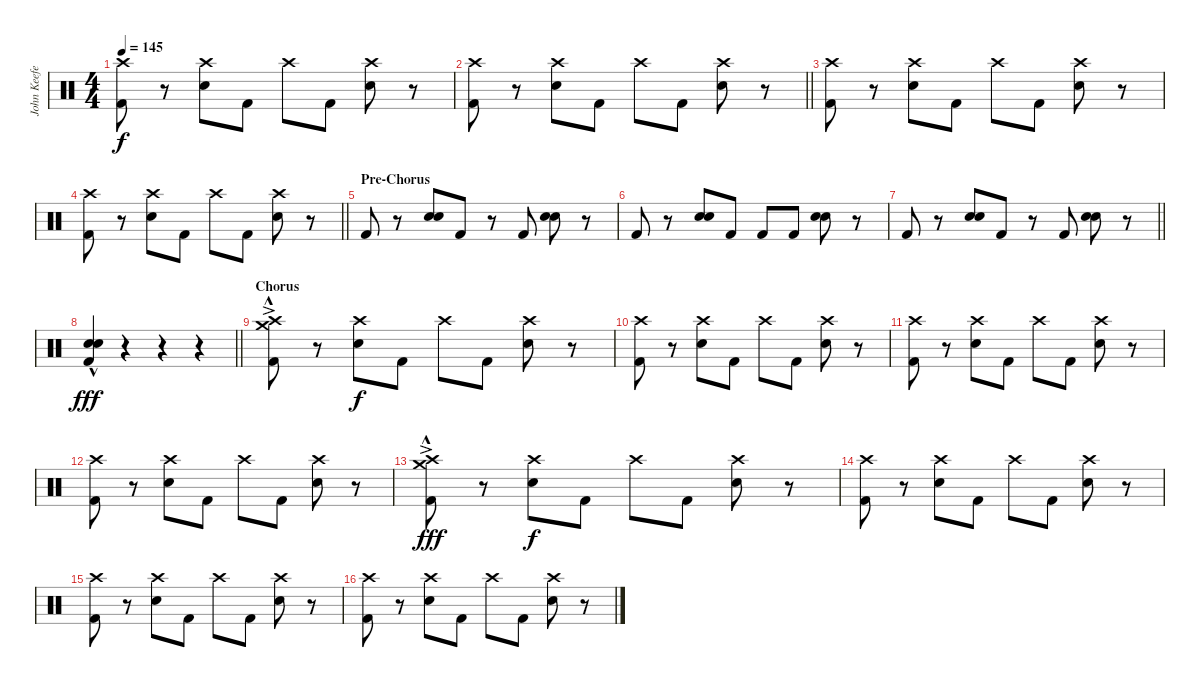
\track ("John Keefe (Percussion)" "John Keefe") {instrument percussion}
\staff {score}
\articulation defaults
\ts (4 4)
\tempo 145
\clef neutral
\ks c
("Crash high (hit)" "Kick (hit) 2").8{dy f} r.8 ("Crash high (hit)" "Electric Snare (hit)").8 "Kick (hit) 2".8 "Crash high (hit)".8 "Kick (hit) 2".8 ("Crash high (hit)" "Electric Snare (hit)").8 r.8 |
\barLineRight lightlight
("Crash high (hit)" "Kick (hit) 2").8 r.8 ("Crash high (hit)" "Electric Snare (hit)").8 "Kick (hit) 2".8 "Crash high (hit)".8 "Kick (hit) 2".8 ("Crash high (hit)" "Electric Snare (hit)").8 r.8 |
("Crash high (hit)" "Kick (hit) 2").8 r.8 ("Crash high (hit)" "Electric Snare (hit)").8 "Kick (hit) 2".8 "Crash high (hit)".8 "Kick (hit) 2".8 ("Crash high (hit)" "Electric Snare (hit)").8 r.8 |
\barLineRight lightlight
("Crash high (hit)" "Kick (hit) 2").8 r.8 ("Crash high (hit)" "Electric Snare (hit)").8 "Kick (hit) 2".8 "Crash high (hit)".8 "Kick (hit) 2".8 ("Crash high (hit)" "Electric Snare (hit)").8 r.8 |
\section ("" "Pre-Chorus")
"Kick (hit) 2".8 r.8 ("Snare (hit) 2" "Electric Snare (hit)").8 "Kick (hit) 2".8 r.8 "Kick (hit) 2".8 ("Snare (hit) 2" "Electric Snare (hit)").8 r.8 |
"Kick (hit) 2".8 r.8 ("Snare (hit) 2" "Electric Snare (hit)").8 "Kick (hit) 2".8 "Kick (hit) 2".8 "Kick (hit) 2".8 ("Snare (hit) 2" "Electric Snare (hit)").8 r.8 |
\barLineRight lightlight "Kick (hit) 2".8
r.8 ("Snare (hit) 2" "Electric Snare (hit)").8 "Kick (hit) 2".8 r.8 "Kick (hit) 2".8 ("Snare (hit) 2" "Electric Snare (hit)").8 r.8 |
\barLineRight lightlight
("Snare (hit) 2" "Kick (hit) 2" "Electric Snare (hit)"{hac}).4{dy fff} r.4 r.4 r.4 |
\section ("" "Chorus")
("Crash high (hit)"{ac} "Crash medium (hit)" "Kick (hit) 2"{hac}).8 r.8 ("Crash high (hit)" "Electric Snare (hit)").8{dy f} "Kick (hit) 2".8 "Crash high (hit)".8 "Kick (hit) 2".8 ("Crash high (hit)" "Electric Snare (hit)").8 r.8 |
("Crash high (hit)" "Kick (hit) 2").8 r.8 ("Crash high (hit)" "Electric Snare (hit)").8 "Kick (hit) 2".8 "Crash high (hit)".8 "Kick (hit) 2".8 ("Crash high (hit)" "Electric Snare (hit)").8 r.8 |
("Crash high (hit)" "Kick (hit) 2").8 r.8 ("Crash high (hit)" "Electric Snare (hit)").8 "Kick (hit) 2".8 "Crash high (hit)".8 "Kick (hit) 2".8 ("Crash high (hit)" "Electric Snare (hit)").8 r.8 |
("Crash high (hit)" "Kick (hit) 2").8 r.8 ("Crash high (hit)" "Electric Snare (hit)").8 "Kick (hit) 2".8 "Crash high (hit)".8 "Kick (hit) 2".8 ("Crash high (hit)" "Electric Snare (hit)").8 r.8 |
("Crash high (hit)"{ac} "Crash medium (hit)" "Kick (hit) 2"{hac}).8{dy fff} r.8 ("Crash high (hit)" "Electric Snare (hit)").8{dy f} "Kick (hit) 2".8 "Crash high (hit)".8 "Kick (hit) 2".8 ("Crash high (hit)" "Electric Snare (hit)").8 r.8 |
("Crash high (hit)" "Kick (hit) 2").8 r.8 ("Crash high (hit)" "Electric Snare (hit)").8 "Kick (hit) 2".8 "Crash high (hit)".8 "Kick (hit) 2".8 ("Crash high (hit)" "Electric Snare (hit)").8 r.8 |
("Crash high (hit)" "Kick (hit) 2").8 r.8 ("Crash high (hit)" "Electric Snare (hit)").8 "Kick (hit) 2".8 "Crash high (hit)".8 "Kick (hit) 2".8 ("Crash high (hit)" "Electric Snare (hit)").8 r.8 |
("Crash high (hit)" "Kick (hit) 2").8 r.8 ("Crash high (hit)" "Electric Snare (hit)").8 "Kick (hit) 2".8 "Crash high (hit)".8 "Kick (hit) 2".8 ("Crash high (hit)" "Electric Snare (hit)").8 r.8
